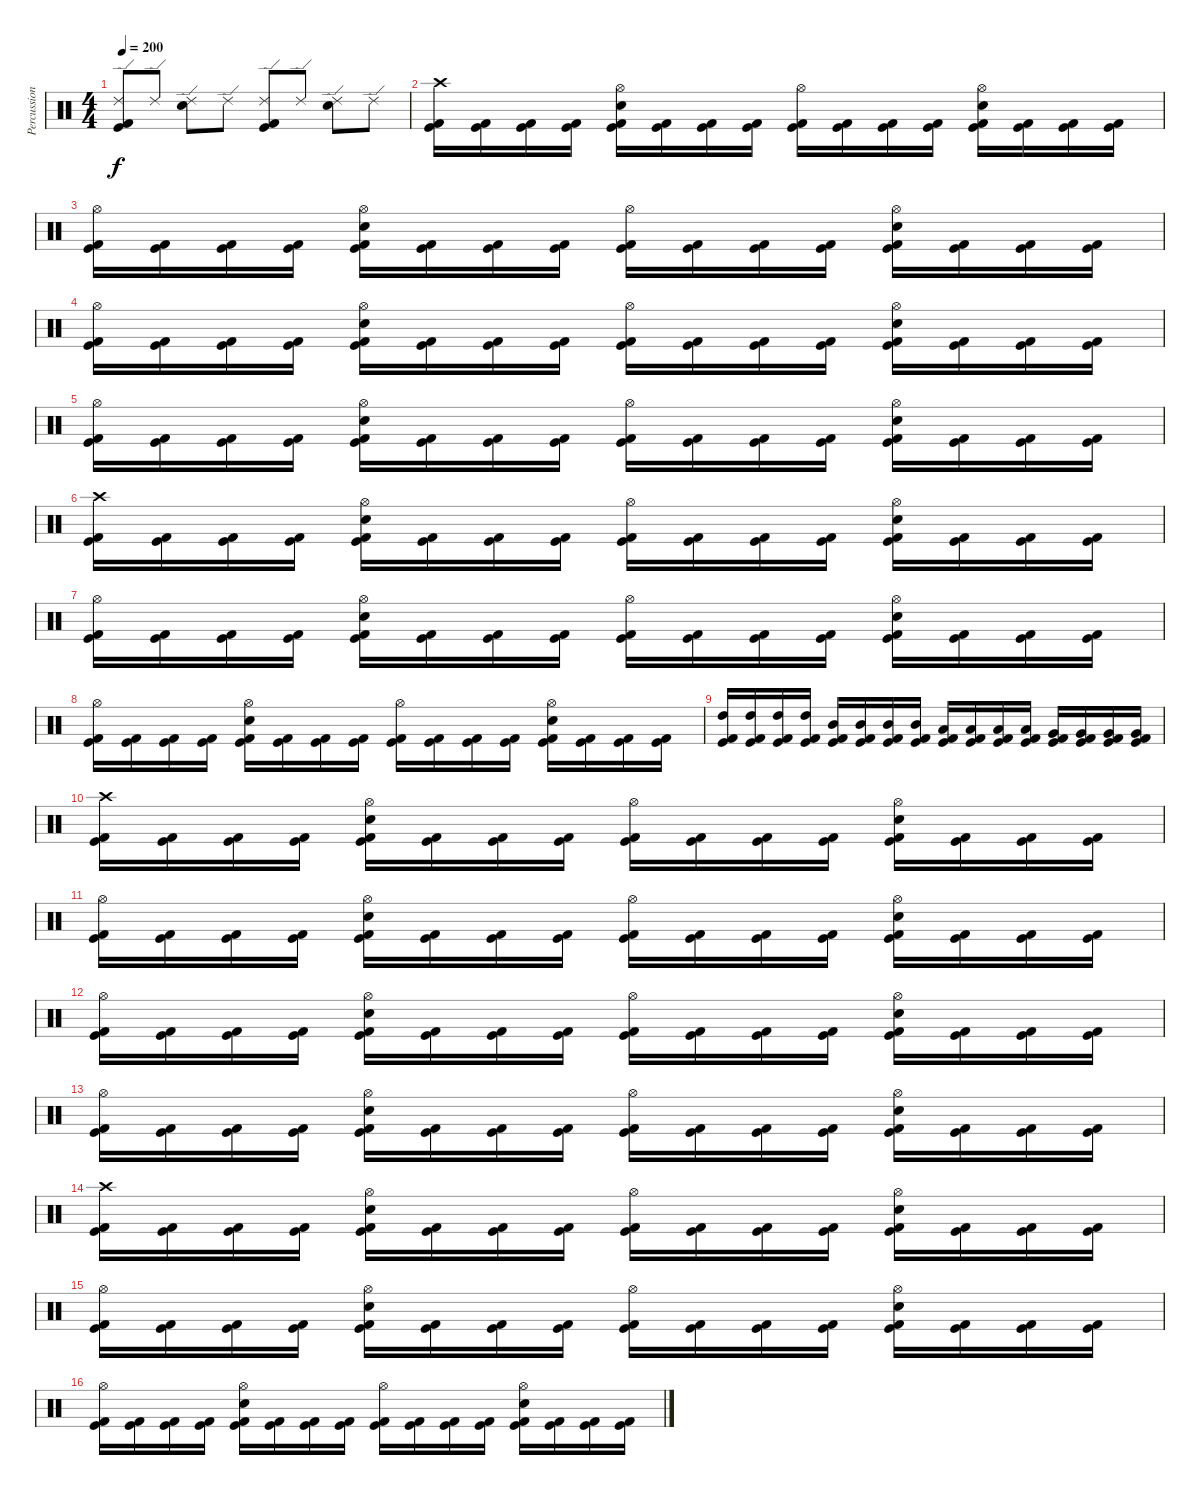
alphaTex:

\track ("Percussion" "Percussion") {instrument percussion}
\staff {score}
\articulation defaults
\ts (4 4)
\tempo 200
\clef neutral
\ks c
("Ride (edge) 2" "Kick (hit)" "Kick (hit) 2").8{dy f} "Ride (edge) 2".8 ("Ride (edge) 2" "Electric Snare (hit)").8 "Ride (edge) 2".8 ("Ride (edge) 2" "Kick (hit)" "Kick (hit) 2").8 "Ride (edge) 2".8 ("Ride (edge) 2" "Electric Snare (hit)").8 "Ride (edge) 2".8 |
("Crash high (hit)" "Kick (hit)" "Kick (hit) 2").16 ("Kick (hit)" "Kick (hit) 2").16 ("Kick (hit)" "Kick (hit) 2").16 ("Kick (hit)" "Kick (hit) 2").16 ("Hi-Hat (open)" "Electric Snare (hit)" "Kick (hit)" "Kick (hit) 2").16 ("Kick (hit)" "Kick (hit) 2").16 ("Kick (hit)" "Kick (hit) 2").16 ("Kick (hit)" "Kick (hit) 2").16 ("Hi-Hat (open)" "Kick (hit)" "Kick (hit) 2").16 ("Kick (hit)" "Kick (hit) 2").16 ("Kick (hit)" "Kick (hit) 2").16 ("Kick (hit)" "Kick (hit) 2").16 ("Hi-Hat (open)" "Electric Snare (hit)" "Kick (hit)" "Kick (hit) 2").16 ("Kick (hit)" "Kick (hit) 2").16 ("Kick (hit)" "Kick (hit) 2").16 ("Kick (hit)" "Kick (hit) 2").16 |
("Hi-Hat (open)" "Kick (hit)" "Kick (hit) 2").16 ("Kick (hit)" "Kick (hit) 2").16 ("Kick (hit)" "Kick (hit) 2").16 ("Kick (hit)" "Kick (hit) 2").16 ("Hi-Hat (open)" "Electric Snare (hit)" "Kick (hit)" "Kick (hit) 2").16 ("Kick (hit)" "Kick (hit) 2").16 ("Kick (hit)" "Kick (hit) 2").16 ("Kick (hit)" "Kick (hit) 2").16 ("Hi-Hat (open)" "Kick (hit)" "Kick (hit) 2").16 ("Kick (hit)" "Kick (hit) 2").16 ("Kick (hit)" "Kick (hit) 2").16 ("Kick (hit)" "Kick (hit) 2").16 ("Hi-Hat (open)" "Electric Snare (hit)" "Kick (hit)" "Kick (hit) 2").16 ("Kick (hit)" "Kick (hit) 2").16 ("Kick (hit)" "Kick (hit) 2").16 ("Kick (hit)" "Kick (hit) 2").16 |
("Hi-Hat (open)" "Kick (hit)" "Kick (hit) 2").16 ("Kick (hit)" "Kick (hit) 2").16 ("Kick (hit)" "Kick (hit) 2").16 ("Kick (hit)" "Kick (hit) 2").16 ("Hi-Hat (open)" "Electric Snare (hit)" "Kick (hit)" "Kick (hit) 2").16 ("Kick (hit)" "Kick (hit) 2").16 ("Kick (hit)" "Kick (hit) 2").16 ("Kick (hit)" "Kick (hit) 2").16 ("Hi-Hat (open)" "Kick (hit)" "Kick (hit) 2").16 ("Kick (hit)" "Kick (hit) 2").16 ("Kick (hit)" "Kick (hit) 2").16 ("Kick (hit)" "Kick (hit) 2").16 ("Hi-Hat (open)" "Electric Snare (hit)" "Kick (hit)" "Kick (hit) 2").16 ("Kick (hit)" "Kick (hit) 2").16 ("Kick (hit)" "Kick (hit) 2").16 ("Kick (hit)" "Kick (hit) 2").16 |
("Hi-Hat (open)" "Kick (hit)" "Kick (hit) 2").16 ("Kick (hit)" "Kick (hit) 2").16 ("Kick (hit)" "Kick (hit) 2").16 ("Kick (hit)" "Kick (hit) 2").16 ("Hi-Hat (open)" "Electric Snare (hit)" "Kick (hit)" "Kick (hit) 2").16 ("Kick (hit)" "Kick (hit) 2").16 ("Kick (hit)" "Kick (hit) 2").16 ("Kick (hit)" "Kick (hit) 2").16 ("Hi-Hat (open)" "Kick (hit)" "Kick (hit) 2").16 ("Kick (hit)" "Kick (hit) 2").16 ("Kick (hit)" "Kick (hit) 2").16 ("Kick (hit)" "Kick (hit) 2").16 ("Hi-Hat (open)" "Electric Snare (hit)" "Kick (hit)" "Kick (hit) 2").16 ("Kick (hit)" "Kick (hit) 2").16 ("Kick (hit)" "Kick (hit) 2").16 ("Kick (hit)" "Kick (hit) 2").16 |
("Crash high (hit)" "Kick (hit)" "Kick (hit) 2").16 ("Kick (hit)" "Kick (hit) 2").16 ("Kick (hit)" "Kick (hit) 2").16 ("Kick (hit)" "Kick (hit) 2").16 ("Hi-Hat (open)" "Electric Snare (hit)" "Kick (hit)" "Kick (hit) 2").16 ("Kick (hit)" "Kick (hit) 2").16 ("Kick (hit)" "Kick (hit) 2").16 ("Kick (hit)" "Kick (hit) 2").16 ("Hi-Hat (open)" "Kick (hit)" "Kick (hit) 2").16 ("Kick (hit)" "Kick (hit) 2").16 ("Kick (hit)" "Kick (hit) 2").16 ("Kick (hit)" "Kick (hit) 2").16 ("Hi-Hat (open)" "Electric Snare (hit)" "Kick (hit)" "Kick (hit) 2").16 ("Kick (hit)" "Kick (hit) 2").16 ("Kick (hit)" "Kick (hit) 2").16 ("Kick (hit)" "Kick (hit) 2").16 |
("Hi-Hat (open)" "Kick (hit)" "Kick (hit) 2").16 ("Kick (hit)" "Kick (hit) 2").16 ("Kick (hit)" "Kick (hit) 2").16 ("Kick (hit)" "Kick (hit) 2").16 ("Hi-Hat (open)" "Electric Snare (hit)" "Kick (hit)" "Kick (hit) 2").16 ("Kick (hit)" "Kick (hit) 2").16 ("Kick (hit)" "Kick (hit) 2").16 ("Kick (hit)" "Kick (hit) 2").16 ("Hi-Hat (open)" "Kick (hit)" "Kick (hit) 2").16 ("Kick (hit)" "Kick (hit) 2").16 ("Kick (hit)" "Kick (hit) 2").16 ("Kick (hit)" "Kick (hit) 2").16 ("Hi-Hat (open)" "Electric Snare (hit)" "Kick (hit)" "Kick (hit) 2").16 ("Kick (hit)" "Kick (hit) 2").16 ("Kick (hit)" "Kick (hit) 2").16 ("Kick (hit)" "Kick (hit) 2").16 |
("Hi-Hat (open)" "Kick (hit)" "Kick (hit) 2").16 ("Kick (hit)" "Kick (hit) 2").16 ("Kick (hit)" "Kick (hit) 2").16 ("Kick (hit)" "Kick (hit) 2").16 ("Hi-Hat (open)" "Electric Snare (hit)" "Kick (hit)" "Kick (hit) 2").16 ("Kick (hit)" "Kick (hit) 2").16 ("Kick (hit)" "Kick (hit) 2").16 ("Kick (hit)" "Kick (hit) 2").16 ("Hi-Hat (open)" "Kick (hit)" "Kick (hit) 2").16 ("Kick (hit)" "Kick (hit) 2").16 ("Kick (hit)" "Kick (hit) 2").16 ("Kick (hit)" "Kick (hit) 2").16 ("Hi-Hat (open)" "Electric Snare (hit)" "Kick (hit)" "Kick (hit) 2").16 ("Kick (hit)" "Kick (hit) 2").16 ("Kick (hit)" "Kick (hit) 2").16 ("Kick (hit)" "Kick (hit) 2").16 |
("High Tom (hit)" "Kick (hit)" "Kick (hit) 2").16 ("High Tom (hit)" "Kick (hit)" "Kick (hit) 2").16 ("High Tom (hit)" "Kick (hit)" "Kick (hit) 2").16 ("High Tom (hit)" "Kick (hit)" "Kick (hit) 2").16 ("Mid Tom (hit)" "Kick (hit)" "Kick (hit) 2").16 ("Mid Tom (hit)" "Kick (hit)" "Kick (hit) 2").16 ("Mid Tom (hit)" "Kick (hit)" "Kick (hit) 2").16 ("Mid Tom (hit)" "Kick (hit)" "Kick (hit) 2").16 ("Low Tom (hit)" "Kick (hit)" "Kick (hit) 2").16 ("Low Tom (hit)" "Kick (hit)" "Kick (hit) 2").16 ("Low Tom (hit)" "Kick (hit)" "Kick (hit) 2").16 ("Low Tom (hit)" "Kick (hit)" "Kick (hit) 2").16 ("Very Low Tom (hit)" "Kick (hit)" "Kick (hit) 2").16 ("Very Low Tom (hit)" "Kick (hit)" "Kick (hit) 2").16 ("Very Low Tom (hit)" "Kick (hit)" "Kick (hit) 2").16 ("Very Low Tom (hit)" "Kick (hit)" "Kick (hit) 2").16 |
("Crash high (hit)" "Kick (hit)" "Kick (hit) 2").16 ("Kick (hit)" "Kick (hit) 2").16 ("Kick (hit)" "Kick (hit) 2").16 ("Kick (hit)" "Kick (hit) 2").16 ("Hi-Hat (open)" "Electric Snare (hit)" "Kick (hit)" "Kick (hit) 2").16 ("Kick (hit)" "Kick (hit) 2").16 ("Kick (hit)" "Kick (hit) 2").16 ("Kick (hit)" "Kick (hit) 2").16 ("Hi-Hat (open)" "Kick (hit)" "Kick (hit) 2").16 ("Kick (hit)" "Kick (hit) 2").16 ("Kick (hit)" "Kick (hit) 2").16 ("Kick (hit)" "Kick (hit) 2").16 ("Hi-Hat (open)" "Electric Snare (hit)" "Kick (hit)" "Kick (hit) 2").16 ("Kick (hit)" "Kick (hit) 2").16 ("Kick (hit)" "Kick (hit) 2").16 ("Kick (hit)" "Kick (hit) 2").16 |
("Hi-Hat (open)" "Kick (hit)" "Kick (hit) 2").16 ("Kick (hit)" "Kick (hit) 2").16 ("Kick (hit)" "Kick (hit) 2").16 ("Kick (hit)" "Kick (hit) 2").16 ("Hi-Hat (open)" "Electric Snare (hit)" "Kick (hit)" "Kick (hit) 2").16 ("Kick (hit)" "Kick (hit) 2").16 ("Kick (hit)" "Kick (hit) 2").16 ("Kick (hit)" "Kick (hit) 2").16 ("Hi-Hat (open)" "Kick (hit)" "Kick (hit) 2").16 ("Kick (hit)" "Kick (hit) 2").16 ("Kick (hit)" "Kick (hit) 2").16 ("Kick (hit)" "Kick (hit) 2").16 ("Hi-Hat (open)" "Electric Snare (hit)" "Kick (hit)" "Kick (hit) 2").16 ("Kick (hit)" "Kick (hit) 2").16 ("Kick (hit)" "Kick (hit) 2").16 ("Kick (hit)" "Kick (hit) 2").16 |
("Hi-Hat (open)" "Kick (hit)" "Kick (hit) 2").16 ("Kick (hit)" "Kick (hit) 2").16 ("Kick (hit)" "Kick (hit) 2").16 ("Kick (hit)" "Kick (hit) 2").16 ("Hi-Hat (open)" "Electric Snare (hit)" "Kick (hit)" "Kick (hit) 2").16 ("Kick (hit)" "Kick (hit) 2").16 ("Kick (hit)" "Kick (hit) 2").16 ("Kick (hit)" "Kick (hit) 2").16 ("Hi-Hat (open)" "Kick (hit)" "Kick (hit) 2").16 ("Kick (hit)" "Kick (hit) 2").16 ("Kick (hit)" "Kick (hit) 2").16 ("Kick (hit)" "Kick (hit) 2").16 ("Hi-Hat (open)" "Electric Snare (hit)" "Kick (hit)" "Kick (hit) 2").16 ("Kick (hit)" "Kick (hit) 2").16 ("Kick (hit)" "Kick (hit) 2").16 ("Kick (hit)" "Kick (hit) 2").16 |
("Hi-Hat (open)" "Kick (hit)" "Kick (hit) 2").16 ("Kick (hit)" "Kick (hit) 2").16 ("Kick (hit)" "Kick (hit) 2").16 ("Kick (hit)" "Kick (hit) 2").16 ("Hi-Hat (open)" "Electric Snare (hit)" "Kick (hit)" "Kick (hit) 2").16 ("Kick (hit)" "Kick (hit) 2").16 ("Kick (hit)" "Kick (hit) 2").16 ("Kick (hit)" "Kick (hit) 2").16 ("Hi-Hat (open)" "Kick (hit)" "Kick (hit) 2").16 ("Kick (hit)" "Kick (hit) 2").16 ("Kick (hit)" "Kick (hit) 2").16 ("Kick (hit)" "Kick (hit) 2").16 ("Hi-Hat (open)" "Electric Snare (hit)" "Kick (hit)" "Kick (hit) 2").16 ("Kick (hit)" "Kick (hit) 2").16 ("Kick (hit)" "Kick (hit) 2").16 ("Kick (hit)" "Kick (hit) 2").16 |
("Crash high (hit)" "Kick (hit)" "Kick (hit) 2").16 ("Kick (hit)" "Kick (hit) 2").16 ("Kick (hit)" "Kick (hit) 2").16 ("Kick (hit)" "Kick (hit) 2").16 ("Hi-Hat (open)" "Electric Snare (hit)" "Kick (hit)" "Kick (hit) 2").16 ("Kick (hit)" "Kick (hit) 2").16 ("Kick (hit)" "Kick (hit) 2").16 ("Kick (hit)" "Kick (hit) 2").16 ("Hi-Hat (open)" "Kick (hit)" "Kick (hit) 2").16 ("Kick (hit)" "Kick (hit) 2").16 ("Kick (hit)" "Kick (hit) 2").16 ("Kick (hit)" "Kick (hit) 2").16 ("Hi-Hat (open)" "Electric Snare (hit)" "Kick (hit)" "Kick (hit) 2").16 ("Kick (hit)" "Kick (hit) 2").16 ("Kick (hit)" "Kick (hit) 2").16 ("Kick (hit)" "Kick (hit) 2").16 |
("Hi-Hat (open)" "Kick (hit)" "Kick (hit) 2").16 ("Kick (hit)" "Kick (hit) 2").16 ("Kick (hit)" "Kick (hit) 2").16 ("Kick (hit)" "Kick (hit) 2").16 ("Hi-Hat (open)" "Electric Snare (hit)" "Kick (hit)" "Kick (hit) 2").16 ("Kick (hit)" "Kick (hit) 2").16 ("Kick (hit)" "Kick (hit) 2").16 ("Kick (hit)" "Kick (hit) 2").16 ("Hi-Hat (open)" "Kick (hit)" "Kick (hit) 2").16 ("Kick (hit)" "Kick (hit) 2").16 ("Kick (hit)" "Kick (hit) 2").16 ("Kick (hit)" "Kick (hit) 2").16 ("Hi-Hat (open)" "Electric Snare (hit)" "Kick (hit)" "Kick (hit) 2").16 ("Kick (hit)" "Kick (hit) 2").16 ("Kick (hit)" "Kick (hit) 2").16 ("Kick (hit)" "Kick (hit) 2").16 |
("Hi-Hat (open)" "Kick (hit)" "Kick (hit) 2").16 ("Kick (hit)" "Kick (hit) 2").16 ("Kick (hit)" "Kick (hit) 2").16 ("Kick (hit)" "Kick (hit) 2").16 ("Hi-Hat (open)" "Electric Snare (hit)" "Kick (hit)" "Kick (hit) 2").16 ("Kick (hit)" "Kick (hit) 2").16 ("Kick (hit)" "Kick (hit) 2").16 ("Kick (hit)" "Kick (hit) 2").16 ("Hi-Hat (open)" "Kick (hit)" "Kick (hit) 2").16 ("Kick (hit)" "Kick (hit) 2").16 ("Kick (hit)" "Kick (hit) 2").16 ("Kick (hit)" "Kick (hit) 2").16 ("Hi-Hat (open)" "Electric Snare (hit)" "Kick (hit)" "Kick (hit) 2").16 ("Kick (hit)" "Kick (hit) 2").16 ("Kick (hit)" "Kick (hit) 2").16 ("Kick (hit)" "Kick (hit) 2").16
